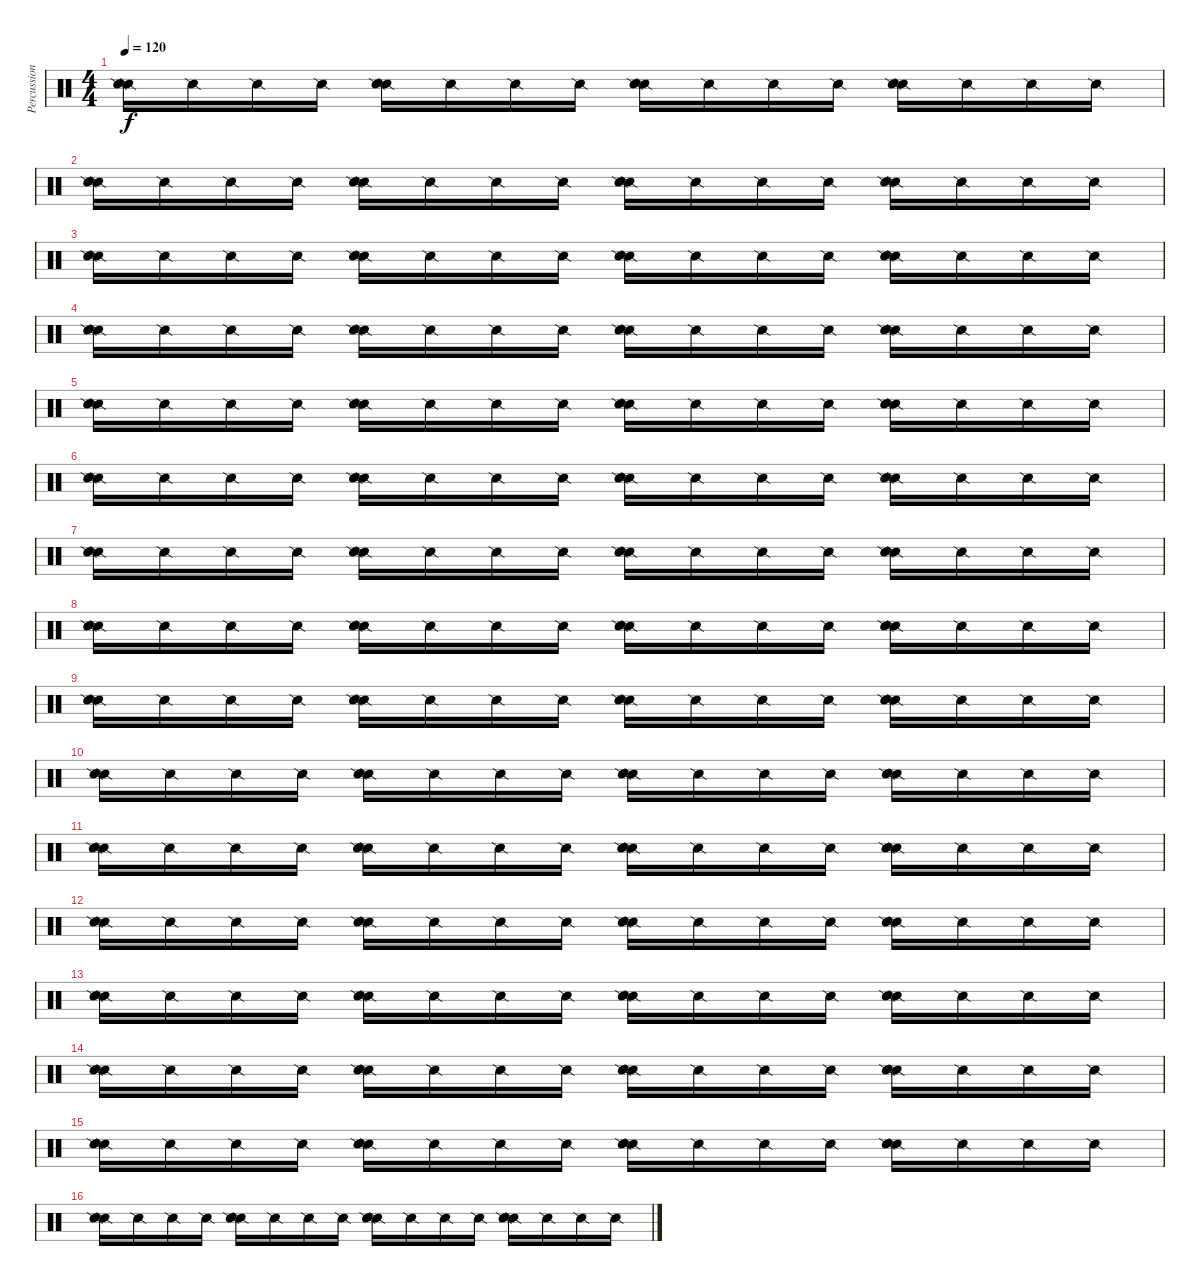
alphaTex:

\track ("Percussioni" "Percussion") {instrument percussion}
\staff {score}
\articulation defaults
\ts (4 4)
\tempo 120
\clef neutral
\ks c
("Snare (side stick) 2" "Snare (side stick) 2" "Metronome (bell)").16{dy f} "Snare (side stick) 2".16 "Snare (side stick) 2".16 "Snare (side stick) 2".16 ("Snare (side stick) 2" "Snare (side stick) 2" "Metronome (bell)").16 "Snare (side stick) 2".16 "Snare (side stick) 2".16 "Snare (side stick) 2".16 ("Snare (side stick) 2" "Snare (side stick) 2" "Metronome (bell)").16 "Snare (side stick) 2".16 "Snare (side stick) 2".16 "Snare (side stick) 2".16 ("Snare (side stick) 2" "Snare (side stick) 2" "Metronome (bell)").16 "Snare (side stick) 2".16 "Snare (side stick) 2".16 "Snare (side stick) 2".16 |
("Snare (side stick) 2" "Snare (side stick) 2" "Metronome (bell)").16 "Snare (side stick) 2".16 "Snare (side stick) 2".16 "Snare (side stick) 2".16 ("Snare (side stick) 2" "Snare (side stick) 2" "Metronome (bell)").16 "Snare (side stick) 2".16 "Snare (side stick) 2".16 "Snare (side stick) 2".16 ("Snare (side stick) 2" "Snare (side stick) 2" "Metronome (bell)").16 "Snare (side stick) 2".16 "Snare (side stick) 2".16 "Snare (side stick) 2".16 ("Snare (side stick) 2" "Snare (side stick) 2" "Metronome (bell)").16 "Snare (side stick) 2".16 "Snare (side stick) 2".16 "Snare (side stick) 2".16 |
("Snare (side stick) 2" "Snare (side stick) 2" "Metronome (bell)").16 "Snare (side stick) 2".16 "Snare (side stick) 2".16 "Snare (side stick) 2".16 ("Snare (side stick) 2" "Snare (side stick) 2" "Metronome (bell)").16 "Snare (side stick) 2".16 "Snare (side stick) 2".16 "Snare (side stick) 2".16 ("Snare (side stick) 2" "Snare (side stick) 2" "Metronome (bell)").16 "Snare (side stick) 2".16 "Snare (side stick) 2".16 "Snare (side stick) 2".16 ("Snare (side stick) 2" "Snare (side stick) 2" "Metronome (bell)").16 "Snare (side stick) 2".16 "Snare (side stick) 2".16 "Snare (side stick) 2".16 |
("Snare (side stick) 2" "Snare (side stick) 2" "Metronome (bell)").16 "Snare (side stick) 2".16 "Snare (side stick) 2".16 "Snare (side stick) 2".16 ("Snare (side stick) 2" "Snare (side stick) 2" "Metronome (bell)").16 "Snare (side stick) 2".16 "Snare (side stick) 2".16 "Snare (side stick) 2".16 ("Snare (side stick) 2" "Snare (side stick) 2" "Metronome (bell)").16 "Snare (side stick) 2".16 "Snare (side stick) 2".16 "Snare (side stick) 2".16 ("Snare (side stick) 2" "Snare (side stick) 2" "Metronome (bell)").16 "Snare (side stick) 2".16 "Snare (side stick) 2".16 "Snare (side stick) 2".16 |
("Snare (side stick) 2" "Snare (side stick) 2" "Metronome (bell)").16 "Snare (side stick) 2".16 "Snare (side stick) 2".16 "Snare (side stick) 2".16 ("Snare (side stick) 2" "Snare (side stick) 2" "Metronome (bell)").16 "Snare (side stick) 2".16 "Snare (side stick) 2".16 "Snare (side stick) 2".16 ("Snare (side stick) 2" "Snare (side stick) 2" "Metronome (bell)").16 "Snare (side stick) 2".16 "Snare (side stick) 2".16 "Snare (side stick) 2".16 ("Snare (side stick) 2" "Snare (side stick) 2" "Metronome (bell)").16 "Snare (side stick) 2".16 "Snare (side stick) 2".16 "Snare (side stick) 2".16 |
("Snare (side stick) 2" "Snare (side stick) 2" "Metronome (bell)").16 "Snare (side stick) 2".16 "Snare (side stick) 2".16 "Snare (side stick) 2".16 ("Snare (side stick) 2" "Snare (side stick) 2" "Metronome (bell)").16 "Snare (side stick) 2".16 "Snare (side stick) 2".16 "Snare (side stick) 2".16 ("Snare (side stick) 2" "Snare (side stick) 2" "Metronome (bell)").16 "Snare (side stick) 2".16 "Snare (side stick) 2".16 "Snare (side stick) 2".16 ("Snare (side stick) 2" "Snare (side stick) 2" "Metronome (bell)").16 "Snare (side stick) 2".16 "Snare (side stick) 2".16 "Snare (side stick) 2".16 |
("Snare (side stick) 2" "Snare (side stick) 2" "Metronome (bell)").16 "Snare (side stick) 2".16 "Snare (side stick) 2".16 "Snare (side stick) 2".16 ("Snare (side stick) 2" "Snare (side stick) 2" "Metronome (bell)").16 "Snare (side stick) 2".16 "Snare (side stick) 2".16 "Snare (side stick) 2".16 ("Snare (side stick) 2" "Snare (side stick) 2" "Metronome (bell)").16 "Snare (side stick) 2".16 "Snare (side stick) 2".16 "Snare (side stick) 2".16 ("Snare (side stick) 2" "Snare (side stick) 2" "Metronome (bell)").16 "Snare (side stick) 2".16 "Snare (side stick) 2".16 "Snare (side stick) 2".16 |
("Snare (side stick) 2" "Snare (side stick) 2" "Metronome (bell)").16 "Snare (side stick) 2".16 "Snare (side stick) 2".16 "Snare (side stick) 2".16 ("Snare (side stick) 2" "Snare (side stick) 2" "Metronome (bell)").16 "Snare (side stick) 2".16 "Snare (side stick) 2".16 "Snare (side stick) 2".16 ("Snare (side stick) 2" "Snare (side stick) 2" "Metronome (bell)").16 "Snare (side stick) 2".16 "Snare (side stick) 2".16 "Snare (side stick) 2".16 ("Snare (side stick) 2" "Snare (side stick) 2" "Metronome (bell)").16 "Snare (side stick) 2".16 "Snare (side stick) 2".16 "Snare (side stick) 2".16 |
("Snare (side stick) 2" "Snare (side stick) 2" "Metronome (bell)").16 "Snare (side stick) 2".16 "Snare (side stick) 2".16 "Snare (side stick) 2".16 ("Snare (side stick) 2" "Snare (side stick) 2" "Metronome (bell)").16 "Snare (side stick) 2".16 "Snare (side stick) 2".16 "Snare (side stick) 2".16 ("Snare (side stick) 2" "Snare (side stick) 2" "Metronome (bell)").16 "Snare (side stick) 2".16 "Snare (side stick) 2".16 "Snare (side stick) 2".16 ("Snare (side stick) 2" "Snare (side stick) 2" "Metronome (bell)").16 "Snare (side stick) 2".16 "Snare (side stick) 2".16 "Snare (side stick) 2".16 |
("Snare (side stick) 2" "Snare (side stick) 2" "Metronome (bell)").16 "Snare (side stick) 2".16 "Snare (side stick) 2".16 "Snare (side stick) 2".16 ("Snare (side stick) 2" "Snare (side stick) 2" "Metronome (bell)").16 "Snare (side stick) 2".16 "Snare (side stick) 2".16 "Snare (side stick) 2".16 ("Snare (side stick) 2" "Snare (side stick) 2" "Metronome (bell)").16 "Snare (side stick) 2".16 "Snare (side stick) 2".16 "Snare (side stick) 2".16 ("Snare (side stick) 2" "Snare (side stick) 2" "Metronome (bell)").16 "Snare (side stick) 2".16 "Snare (side stick) 2".16 "Snare (side stick) 2".16 |
("Snare (side stick) 2" "Snare (side stick) 2" "Metronome (bell)").16 "Snare (side stick) 2".16 "Snare (side stick) 2".16 "Snare (side stick) 2".16 ("Snare (side stick) 2" "Snare (side stick) 2" "Metronome (bell)").16 "Snare (side stick) 2".16 "Snare (side stick) 2".16 "Snare (side stick) 2".16 ("Snare (side stick) 2" "Snare (side stick) 2" "Metronome (bell)").16 "Snare (side stick) 2".16 "Snare (side stick) 2".16 "Snare (side stick) 2".16 ("Snare (side stick) 2" "Snare (side stick) 2" "Metronome (bell)").16 "Snare (side stick) 2".16 "Snare (side stick) 2".16 "Snare (side stick) 2".16 |
("Snare (side stick) 2" "Snare (side stick) 2" "Metronome (bell)").16 "Snare (side stick) 2".16 "Snare (side stick) 2".16 "Snare (side stick) 2".16 ("Snare (side stick) 2" "Snare (side stick) 2" "Metronome (bell)").16 "Snare (side stick) 2".16 "Snare (side stick) 2".16 "Snare (side stick) 2".16 ("Snare (side stick) 2" "Snare (side stick) 2" "Metronome (bell)").16 "Snare (side stick) 2".16 "Snare (side stick) 2".16 "Snare (side stick) 2".16 ("Snare (side stick) 2" "Snare (side stick) 2" "Metronome (bell)").16 "Snare (side stick) 2".16 "Snare (side stick) 2".16 "Snare (side stick) 2".16 |
("Snare (side stick) 2" "Snare (side stick) 2" "Metronome (bell)").16 "Snare (side stick) 2".16 "Snare (side stick) 2".16 "Snare (side stick) 2".16 ("Snare (side stick) 2" "Snare (side stick) 2" "Metronome (bell)").16 "Snare (side stick) 2".16 "Snare (side stick) 2".16 "Snare (side stick) 2".16 ("Snare (side stick) 2" "Snare (side stick) 2" "Metronome (bell)").16 "Snare (side stick) 2".16 "Snare (side stick) 2".16 "Snare (side stick) 2".16 ("Snare (side stick) 2" "Snare (side stick) 2" "Metronome (bell)").16 "Snare (side stick) 2".16 "Snare (side stick) 2".16 "Snare (side stick) 2".16 |
("Snare (side stick) 2" "Snare (side stick) 2" "Metronome (bell)").16 "Snare (side stick) 2".16 "Snare (side stick) 2".16 "Snare (side stick) 2".16 ("Snare (side stick) 2" "Snare (side stick) 2" "Metronome (bell)").16 "Snare (side stick) 2".16 "Snare (side stick) 2".16 "Snare (side stick) 2".16 ("Snare (side stick) 2" "Snare (side stick) 2" "Metronome (bell)").16 "Snare (side stick) 2".16 "Snare (side stick) 2".16 "Snare (side stick) 2".16 ("Snare (side stick) 2" "Snare (side stick) 2" "Metronome (bell)").16 "Snare (side stick) 2".16 "Snare (side stick) 2".16 "Snare (side stick) 2".16 |
("Snare (side stick) 2" "Snare (side stick) 2" "Metronome (bell)").16 "Snare (side stick) 2".16 "Snare (side stick) 2".16 "Snare (side stick) 2".16 ("Snare (side stick) 2" "Snare (side stick) 2" "Metronome (bell)").16 "Snare (side stick) 2".16 "Snare (side stick) 2".16 "Snare (side stick) 2".16 ("Snare (side stick) 2" "Snare (side stick) 2" "Metronome (bell)").16 "Snare (side stick) 2".16 "Snare (side stick) 2".16 "Snare (side stick) 2".16 ("Snare (side stick) 2" "Snare (side stick) 2" "Metronome (bell)").16 "Snare (side stick) 2".16 "Snare (side stick) 2".16 "Snare (side stick) 2".16 |
("Snare (side stick) 2" "Snare (side stick) 2" "Metronome (bell)").16 "Snare (side stick) 2".16 "Snare (side stick) 2".16 "Snare (side stick) 2".16 ("Snare (side stick) 2" "Snare (side stick) 2" "Metronome (bell)").16 "Snare (side stick) 2".16 "Snare (side stick) 2".16 "Snare (side stick) 2".16 ("Snare (side stick) 2" "Snare (side stick) 2" "Metronome (bell)").16 "Snare (side stick) 2".16 "Snare (side stick) 2".16 "Snare (side stick) 2".16 ("Snare (side stick) 2" "Snare (side stick) 2" "Metronome (bell)").16 "Snare (side stick) 2".16 "Snare (side stick) 2".16 "Snare (side stick) 2".16
